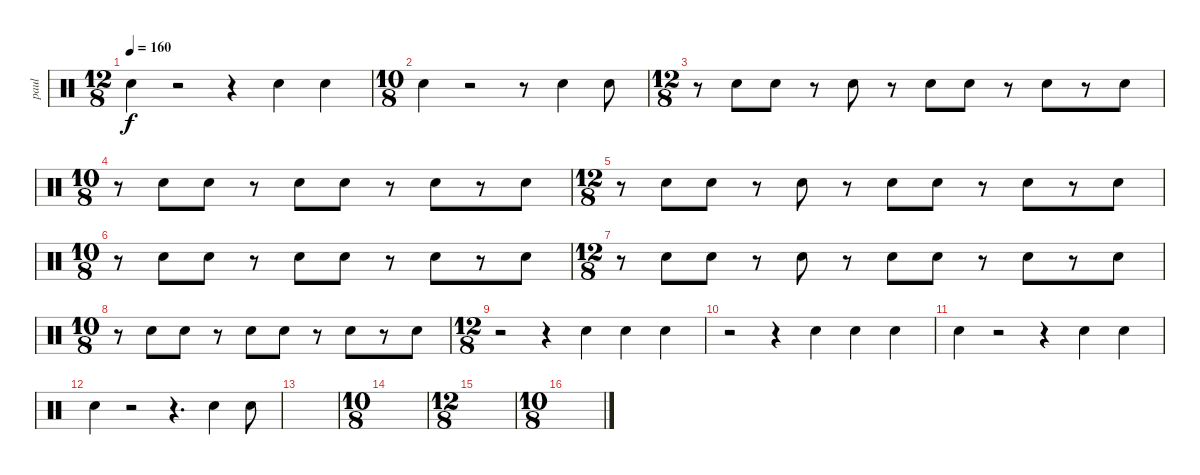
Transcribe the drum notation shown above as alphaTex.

\track ("paul" "paul") {instrument percussion}
\staff {score}
\articulation defaults
\ts (12 8)
\tempo 160
\clef neutral
\ks c "Hand Clap (hit)".4{dy f}
r.2 r.4 "Hand Clap (hit)".4 "Hand Clap (hit)".4 |
\ts (10 8)
"Hand Clap (hit)".4 r.2 r.8 "Hand Clap (hit)".4 "Hand Clap (hit)".8 |
\ts (12 8)
r.8 "Hand Clap (hit)".8 "Hand Clap (hit)".8 r.8 "Hand Clap (hit)".8 r.8 "Hand Clap (hit)".8 "Hand Clap (hit)".8 r.8 "Hand Clap (hit)".8 r.8 "Hand Clap (hit)".8 |
\ts (10 8)
r.8 "Hand Clap (hit)".8 "Hand Clap (hit)".8 r.8 "Hand Clap (hit)".8 "Hand Clap (hit)".8 r.8 "Hand Clap (hit)".8 r.8 "Hand Clap (hit)".8 |
\ts (12 8)
r.8 "Hand Clap (hit)".8 "Hand Clap (hit)".8 r.8 "Hand Clap (hit)".8 r.8 "Hand Clap (hit)".8 "Hand Clap (hit)".8 r.8 "Hand Clap (hit)".8 r.8 "Hand Clap (hit)".8 |
\ts (10 8)
r.8 "Hand Clap (hit)".8 "Hand Clap (hit)".8 r.8 "Hand Clap (hit)".8 "Hand Clap (hit)".8 r.8 "Hand Clap (hit)".8 r.8 "Hand Clap (hit)".8 |
\ts (12 8)
r.8 "Hand Clap (hit)".8 "Hand Clap (hit)".8 r.8 "Hand Clap (hit)".8 r.8 "Hand Clap (hit)".8 "Hand Clap (hit)".8 r.8 "Hand Clap (hit)".8 r.8 "Hand Clap (hit)".8 |
\ts (10 8)
r.8 "Hand Clap (hit)".8 "Hand Clap (hit)".8 r.8 "Hand Clap (hit)".8 "Hand Clap (hit)".8 r.8 "Hand Clap (hit)".8 r.8 "Hand Clap (hit)".8 |
\ts (12 8)
r.2 r.4 "Hand Clap (hit)".4 "Hand Clap (hit)".4 "Hand Clap (hit)".4 |
r.2 r.4 "Hand Clap (hit)".4 "Hand Clap (hit)".4 "Hand Clap (hit)".4 |
"Hand Clap (hit)".4 r.2 r.4 "Hand Clap (hit)".4 "Hand Clap (hit)".4 |
"Hand Clap (hit)".4 r.2 r.4{d} "Hand Clap (hit)".4 "Hand Clap (hit)".8 |
|
\ts (10 8)
|
\ts (12 8)
|
\ts (10 8)
